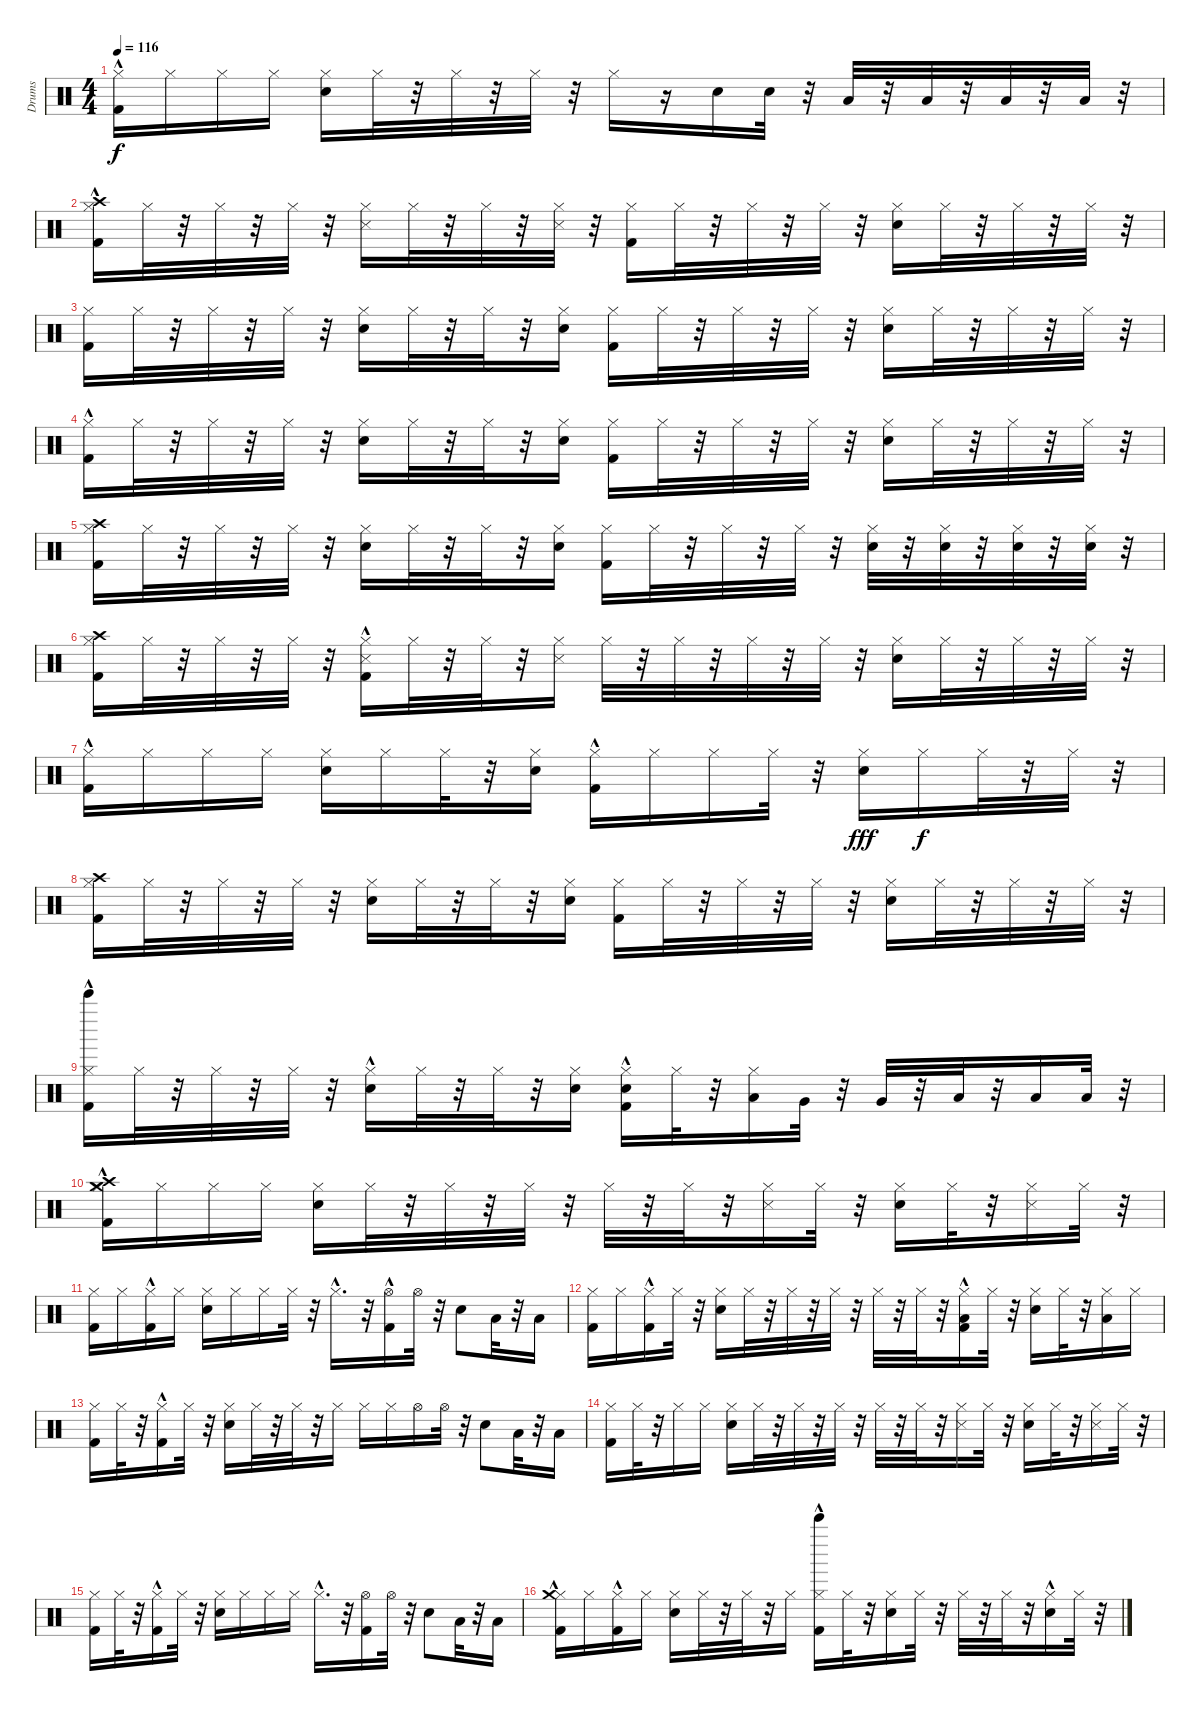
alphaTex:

\track ("Drums" "Drums") {instrument percussion}
\staff {score}
\articulation defaults
\ts (4 4)
\tempo 116
\clef neutral
\ks c
("Kick (hit) 2"{hac} "Hi-Hat (closed)").16{dy f} "Hi-Hat (closed)".16 "Hi-Hat (closed)".16 "Hi-Hat (closed)".16 ("Hi-Hat (closed)" "Snare (hit) 2").16 "Hi-Hat (closed)".32 r.32 "Hi-Hat (closed)".32 r.32 "Hi-Hat (closed)".32 r.32 "Hi-Hat (closed)".16 r.16 "Snare (hit) 2".16 "Snare (hit) 2".32 r.32 "Low Tom (hit)".32 r.32 "Low Tom (hit)".32 r.32 "Low Floor Tom (hit)".32 r.32 "Low Floor Tom (hit)".32 r.32 |
("Crash high (hit)" "Hi-Hat (closed)" "Kick (hit) 2"{hac}).16 "Hi-Hat (closed)".32 r.32 "Hi-Hat (closed)".32 r.32 "Hi-Hat (closed)".32 r.32 ("Snare (side stick) 3" "Hi-Hat (closed)").16 "Hi-Hat (closed)".32 r.32 "Hi-Hat (closed)".32 r.32 ("Hi-Hat (closed)" "Snare (side stick) 3").32 r.32 ("Hi-Hat (closed)" "Kick (hit) 2").16 "Hi-Hat (closed)".32 r.32 "Hi-Hat (closed)".32 r.32 "Hi-Hat (closed)".32 r.32 ("Snare (hit) 2" "Hi-Hat (closed)").16 "Hi-Hat (closed)".32 r.32 "Hi-Hat (closed)".32 r.32 "Hi-Hat (closed)".32 r.32 |
("Hi-Hat (closed)" "Kick (hit) 2").16 "Hi-Hat (closed)".32 r.32 "Hi-Hat (closed)".32 r.32 "Hi-Hat (closed)".32 r.32 ("Hi-Hat (closed)" "Snare (hit) 2").16 "Hi-Hat (closed)".32 r.32 "Hi-Hat (closed)".32 r.32 ("Snare (hit) 2" "Hi-Hat (closed)").16 ("Kick (hit) 2" "Hi-Hat (closed)").16 "Hi-Hat (closed)".32 r.32 "Hi-Hat (closed)".32 r.32 "Hi-Hat (closed)".32 r.32 ("Hi-Hat (closed)" "Snare (hit) 2").16 "Hi-Hat (closed)".32 r.32 "Hi-Hat (closed)".32 r.32 "Hi-Hat (closed)".32 r.32 |
("Kick (hit) 2"{hac} "Hi-Hat (closed)").16 "Hi-Hat (closed)".32 r.32 "Hi-Hat (closed)".32 r.32 "Hi-Hat (closed)".32 r.32 ("Snare (hit) 2" "Hi-Hat (closed)").16 "Hi-Hat (closed)".32 r.32 "Hi-Hat (closed)".32 r.32 ("Snare (hit) 2" "Hi-Hat (closed)").16 ("Hi-Hat (closed)" "Kick (hit) 2").16 "Hi-Hat (closed)".32 r.32 "Hi-Hat (closed)".32 r.32 "Hi-Hat (closed)".32 r.32 ("Hi-Hat (closed)" "Snare (hit) 2").16 "Hi-Hat (closed)".32 r.32 "Hi-Hat (closed)".32 r.32 "Hi-Hat (closed)".32 r.32 |
("Hi-Hat (closed)" "Kick (hit) 2" "Crash high (hit)").16 "Hi-Hat (closed)".32 r.32 "Hi-Hat (closed)".32 r.32 "Hi-Hat (closed)".32 r.32 ("Snare (hit) 2" "Hi-Hat (closed)").16 "Hi-Hat (closed)".32 r.32 "Hi-Hat (closed)".32 r.32 ("Hi-Hat (closed)" "Snare (hit) 2").16 ("Hi-Hat (closed)" "Kick (hit) 2").16 "Hi-Hat (closed)".32 r.32 "Hi-Hat (closed)".32 r.32 "Hi-Hat (closed)".32 r.32 ("Snare (hit) 2" "Hi-Hat (closed)").32 r.32 ("Hi-Hat (closed)" "Snare (hit) 2").32 r.32 ("Snare (hit) 2" "Hi-Hat (closed)").32 r.32 ("Hi-Hat (closed)" "Snare (hit) 2").32 r.32 |
("Hi-Hat (closed)" "Crash high (hit)" "Kick (hit) 2").16 "Hi-Hat (closed)".32 r.32 "Hi-Hat (closed)".32 r.32 "Hi-Hat (closed)".32 r.32 ("Kick (hit) 2"{hac} "Hi-Hat (closed)" "Snare (side stick) 3"{hac}).16 "Hi-Hat (closed)".32 r.32 "Hi-Hat (closed)".32 r.32 ("Snare (side stick) 3" "Hi-Hat (closed)").16 "Hi-Hat (closed)".32 r.32 "Hi-Hat (closed)".32 r.32 "Hi-Hat (closed)".32 r.32 "Hi-Hat (closed)".32 r.32 ("Snare (hit) 2" "Hi-Hat (closed)").16 "Hi-Hat (closed)".32 r.32 "Hi-Hat (closed)".32 r.32 "Hi-Hat (closed)".32 r.32 |
("Kick (hit) 2"{hac} "Hi-Hat (closed)").16 "Hi-Hat (closed)".16 "Hi-Hat (closed)".16 "Hi-Hat (closed)".16 ("Hi-Hat (closed)" "Snare (hit) 2").16 "Hi-Hat (closed)".16 "Hi-Hat (closed)".32 r.32 ("Hi-Hat (closed)" "Snare (hit) 2").16 ("Hi-Hat (closed)" "Kick (hit) 2"{hac}).16 "Hi-Hat (closed)".16 "Hi-Hat (closed)".16 "Hi-Hat (closed)".32 r.32 ("Snare (hit) 2" "Hi-Hat (closed)").16{dy fff} "Hi-Hat (closed)".16{dy f} "Hi-Hat (closed)".32 r.32 "Hi-Hat (closed)".32 r.32 |
("Crash high (hit)" "Kick (hit) 2" "Hi-Hat (closed)").16 "Hi-Hat (closed)".32 r.32 "Hi-Hat (closed)".32 r.32 "Hi-Hat (closed)".32 r.32 ("Snare (hit) 2" "Hi-Hat (closed)").16 "Hi-Hat (closed)".32 r.32 "Hi-Hat (closed)".32 r.32 ("Snare (hit) 2" "Hi-Hat (closed)").16 ("Hi-Hat (closed)" "Kick (hit) 2").16 "Hi-Hat (closed)".32 r.32 "Hi-Hat (closed)".32 r.32 "Hi-Hat (closed)".32 r.32 ("Snare (hit) 2" "Hi-Hat (closed)").16 "Hi-Hat (closed)".32 r.32 "Hi-Hat (closed)".32 r.32 "Hi-Hat (closed)".32 r.32 |
("Hi-Hat (closed)" "Kick (hit) 2" "Bell Tree (hit)"{hac}).16 "Hi-Hat (closed)".32 r.32 "Hi-Hat (closed)".32 r.32 "Hi-Hat (closed)".32 r.32 ("Snare (hit) 2"{hac} "Hi-Hat (closed)").16 "Hi-Hat (closed)".32 r.32 "Hi-Hat (closed)".32 r.32 ("Snare (hit) 2" "Hi-Hat (closed)").16 ("Kick (hit) 2"{hac} "Hi-Hat (closed)" "Snare (hit) 2"{hac}).16 "Hi-Hat (closed)".32 r.32 ("Hi-Hat (closed)" "Low Tom (hit)").16 "Very Low Tom (hit)".32 r.32 "Very Low Tom (hit)".32 r.32 "Low Floor Tom (hit)".32 r.32 "Low Floor Tom (hit)".16 "Low Tom (hit)".32 r.32 |
("Crash medium (hit)" "Crash high (hit)" "Hi-Hat (closed)" "Kick (hit) 2"{hac}).16 "Hi-Hat (closed)".16 "Hi-Hat (closed)".16 "Hi-Hat (closed)".16 ("Hi-Hat (closed)" "Snare (hit) 2").16 "Hi-Hat (closed)".32 r.32 "Hi-Hat (closed)".32 r.32 "Hi-Hat (closed)".32 r.32 "Hi-Hat (closed)".32 r.32 "Hi-Hat (closed)".32 r.32 ("Snare (side stick) 3" "Hi-Hat (closed)").16 "Hi-Hat (closed)".32 r.32 ("Snare (hit) 2" "Hi-Hat (closed)").16 "Hi-Hat (closed)".32 r.32 ("Snare (side stick) 3" "Hi-Hat (closed)").16 "Hi-Hat (closed)".32 r.32 |
("Kick (hit) 2" "Hi-Hat (closed)").16 "Hi-Hat (closed)".16 ("Hi-Hat (closed)" "Kick (hit) 2"{hac}).16 "Hi-Hat (closed)".16 ("Hi-Hat (closed)" "Snare (hit) 2").16 "Hi-Hat (closed)".16 "Hi-Hat (closed)".16 "Hi-Hat (closed)".32 r.32 "Hi-Hat (closed)"{hac}.16{d} r.32 ("Kick (hit) 2"{hac} "Hi-Hat (open)").16 "Hi-Hat (open)".32 r.32 "Snare (hit) 2".8 "Low Tom (hit)".32 r.32 "Low Tom (hit)".16 |
("Hi-Hat (closed)" "Kick (hit) 2").16 "Hi-Hat (closed)".16 ("Hi-Hat (closed)" "Kick (hit) 2"{hac}).16 "Hi-Hat (closed)".32 r.32 ("Hi-Hat (closed)" "Snare (hit) 2").16 "Hi-Hat (closed)".32 r.32 "Hi-Hat (closed)".32 r.32 "Hi-Hat (closed)".32 r.32 "Hi-Hat (closed)".32 r.32 "Hi-Hat (closed)".32 r.32 ("Low Tom (hit)" "Hi-Hat (closed)" "Kick (hit) 2"{hac}).16 "Hi-Hat (closed)".32 r.32 ("Hi-Hat (closed)" "Snare (hit) 2").16 "Hi-Hat (closed)".32 r.32 ("Hi-Hat (closed)" "Low Floor Tom (hit)").16 "Hi-Hat (closed)".16 |
("Kick (hit) 2" "Hi-Hat (closed)").16 "Hi-Hat (closed)".32 r.32 ("Kick (hit) 2"{hac} "Hi-Hat (closed)").16 "Hi-Hat (closed)".32 r.32 ("Hi-Hat (closed)" "Snare (hit) 2").16 "Hi-Hat (closed)".32 r.32 "Hi-Hat (closed)".32 r.32 "Hi-Hat (closed)".16 "Hi-Hat (closed)".16 "Hi-Hat (closed)".16 "Hi-Hat (open)".16 "Hi-Hat (open)".32 r.32 "Snare (hit) 2".8 "Low Tom (hit)".32 r.32 "Low Tom (hit)".16 |
("Kick (hit) 2" "Hi-Hat (closed)").16 "Hi-Hat (closed)".32 r.32 "Hi-Hat (closed)".16 "Hi-Hat (closed)".16 ("Hi-Hat (closed)" "Snare (hit) 2").16 "Hi-Hat (closed)".32 r.32 "Hi-Hat (closed)".32 r.32 "Hi-Hat (closed)".32 r.32 "Hi-Hat (closed)".32 r.32 "Hi-Hat (closed)".32 r.32 ("Hi-Hat (closed)" "Snare (side stick) 3").16 "Hi-Hat (closed)".32 r.32 ("Hi-Hat (closed)" "Snare (hit) 2").16 "Hi-Hat (closed)".32 r.32 ("Snare (side stick) 3" "Hi-Hat (closed)").16 "Hi-Hat (closed)".32 r.32 |
("Kick (hit) 2" "Hi-Hat (closed)").16 "Hi-Hat (closed)".32 r.32 ("Kick (hit) 2"{hac} "Hi-Hat (closed)").16 "Hi-Hat (closed)".32 r.32 ("Hi-Hat (closed)" "Snare (hit) 2").16 "Hi-Hat (closed)".16 "Hi-Hat (closed)".16 "Hi-Hat (closed)".16 "Hi-Hat (closed)"{hac}.16{d} r.32 ("Hi-Hat (open)" "Kick (hit) 2").16 "Hi-Hat (open)".32 r.32 "Snare (hit) 2".8 "Low Tom (hit)".32 r.32 "Low Tom (hit)".16 |
("Kick (hit) 2" "Hi-Hat (closed)" "Crash medium (hit)"{hac}).16 "Hi-Hat (closed)".16 ("Kick (hit) 2"{hac} "Hi-Hat (closed)").16 "Hi-Hat (closed)".16 ("Snare (hit) 2" "Hi-Hat (closed)").16 "Hi-Hat (closed)".32 r.32 "Hi-Hat (closed)".32 r.32 "Hi-Hat (closed)".16 ("Kick (hit) 2"{hac} "Hi-Hat (closed)" "Bell Tree (hit)").16 "Hi-Hat (closed)".32 r.32 ("Hi-Hat (closed)" "Snare (hit) 2").16 "Hi-Hat (closed)".32 r.32 "Hi-Hat (closed)".32 r.32 "Hi-Hat (closed)".32 r.32 ("Snare (hit) 2"{hac} "Hi-Hat (closed)").16 "Hi-Hat (closed)".32 r.32
